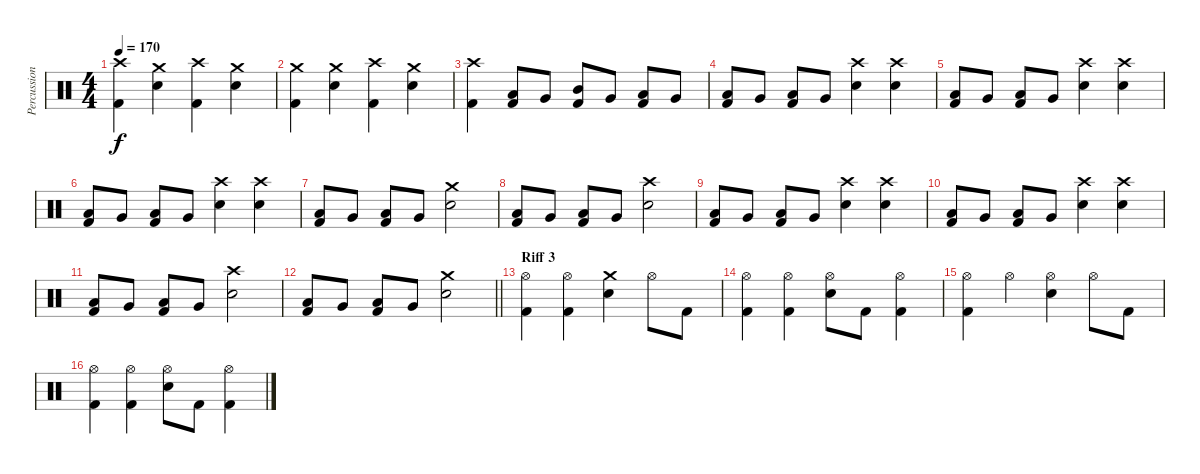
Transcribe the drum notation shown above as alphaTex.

\track ("Percussion" "Percussion") {instrument percussion}
\staff {score}
\articulation defaults
\ts (4 4)
\tempo 170
\clef neutral
\ks c
("Crash high (hit)" "Kick (hit) 2").4{dy f} ("Crash medium (hit)" "Electric Snare (hit)").4 ("Crash high (hit)" "Kick (hit) 2").4 ("Crash medium (hit)" "Electric Snare (hit)").4 |
("Crash medium (hit)" "Kick (hit) 2").4 ("Crash medium (hit)" "Electric Snare (hit)").4 ("Crash high (hit)" "Kick (hit) 2").4 ("Crash medium (hit)" "Electric Snare (hit)").4 |
("Crash high (hit)" "Kick (hit) 2").4 ("Low Tom (hit)" "Kick (hit) 2").8 "Very Low Tom (hit)".8 ("Mid Tom (hit)" "Kick (hit) 2").8 "Very Low Tom (hit)".8 ("Low Tom (hit)" "Kick (hit) 2").8 "Very Low Tom (hit)".8 |
("Low Floor Tom (hit)" "Kick (hit) 2").8 "Very Low Tom (hit)".8 ("Low Floor Tom (hit)" "Kick (hit) 2").8 "Very Low Tom (hit)".8 ("Crash high (hit)" "Electric Snare (hit)").4 ("Crash high (hit)" "Electric Snare (hit)").4 |
("Low Tom (hit)" "Kick (hit) 2").8 "Very Low Tom (hit)".8 ("Low Floor Tom (hit)" "Kick (hit) 2").8 "Very Low Tom (hit)".8 ("Crash high (hit)" "Electric Snare (hit)").4 ("Crash high (hit)" "Electric Snare (hit)").4 |
("Low Tom (hit)" "Kick (hit) 2").8 "Very Low Tom (hit)".8 ("Low Floor Tom (hit)" "Kick (hit) 2").8 "Very Low Tom (hit)".8 ("Crash high (hit)" "Electric Snare (hit)").4 ("Crash high (hit)" "Electric Snare (hit)").4 |
("Low Tom (hit)" "Kick (hit) 2").8 "Very Low Tom (hit)".8 ("Low Floor Tom (hit)" "Kick (hit) 2").8 "Very Low Tom (hit)".8 ("Crash medium (hit)" "Electric Snare (hit)").2 |
("Low Tom (hit)" "Kick (hit) 2").8 "Very Low Tom (hit)".8 ("Low Floor Tom (hit)" "Kick (hit) 2").8 "Very Low Tom (hit)".8 ("Crash high (hit)" "Electric Snare (hit)").2 |
("Low Tom (hit)" "Kick (hit) 2").8 "Very Low Tom (hit)".8 ("Low Floor Tom (hit)" "Kick (hit) 2").8 "Very Low Tom (hit)".8 ("Crash high (hit)" "Electric Snare (hit)").4 ("Crash high (hit)" "Electric Snare (hit)").4 |
("Low Tom (hit)" "Kick (hit) 2").8 "Very Low Tom (hit)".8 ("Low Floor Tom (hit)" "Kick (hit) 2").8 "Very Low Tom (hit)".8 ("Crash high (hit)" "Electric Snare (hit)").4 ("Crash high (hit)" "Electric Snare (hit)").4 |
("Low Tom (hit)" "Kick (hit) 2").8 "Very Low Tom (hit)".8 ("Low Floor Tom (hit)" "Kick (hit) 2").8 "Very Low Tom (hit)".8 ("Crash high (hit)" "Electric Snare (hit)").2 |
\barLineRight lightlight
("Low Tom (hit)" "Kick (hit) 2").8 "Very Low Tom (hit)".8 ("Low Floor Tom (hit)" "Kick (hit) 2").8 "Very Low Tom (hit)".8 ("Crash medium (hit)" "Electric Snare (hit)").2 |
\section ("" "Riff 3")
("Hi-Hat (open)" "Kick (hit) 2").4 ("Hi-Hat (open)" "Kick (hit) 2").4 ("Crash medium (hit)" "Electric Snare (hit)").4 "Hi-Hat (open)".8 "Kick (hit) 2".8 |
("Hi-Hat (open)" "Kick (hit) 2").4 ("Hi-Hat (open)" "Kick (hit) 2").4 ("Hi-Hat (open)" "Electric Snare (hit)").8 "Kick (hit) 2".8 ("Hi-Hat (open)" "Kick (hit) 2").4 |
("Hi-Hat (open)" "Kick (hit) 2").4 "Hi-Hat (open)".4 ("Hi-Hat (open)" "Electric Snare (hit)").4 "Hi-Hat (open)".8 "Kick (hit) 2".8 |
("Hi-Hat (open)" "Kick (hit) 2").4 ("Hi-Hat (open)" "Kick (hit) 2").4 ("Hi-Hat (open)" "Electric Snare (hit)").8 "Kick (hit) 2".8 ("Hi-Hat (open)" "Kick (hit) 2").4
